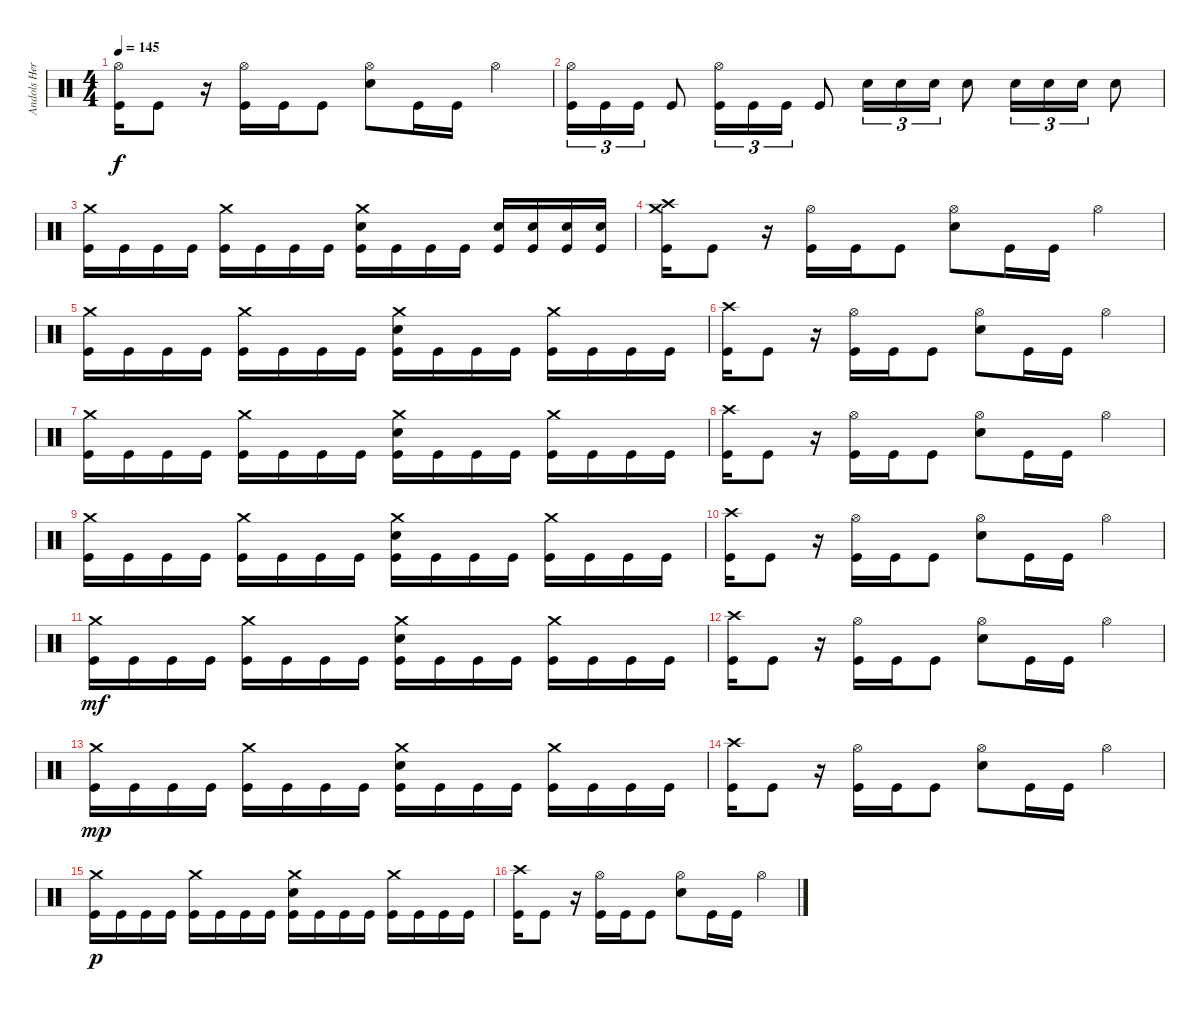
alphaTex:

\track ("Andols Herrick" "Andols Her") {instrument percussion}
\staff
\articulation defaults
\ts (4 4)
\tempo 145
\clef neutral
\ks c
("Hi-Hat (open)" "Kick (hit)").16{dy f} "Kick (hit)".8 r.16 ("Hi-Hat (open)" "Kick (hit)").16 "Kick (hit)".16 "Kick (hit)".8 ("Hi-Hat (open)" "Electric Snare (hit)").8 "Kick (hit)".16 "Kick (hit)".16 "Hi-Hat (open)".4 |
("Hi-Hat (open)" "Kick (hit)").16{tu (3 2)} "Kick (hit)".16{tu (3 2)} "Kick (hit)".16{tu (3 2)} "Kick (hit)".8 ("Hi-Hat (open)" "Kick (hit)").16{tu (3 2)} "Kick (hit)".16{tu (3 2)} "Kick (hit)".16{tu (3 2)} "Kick (hit)".8 "Electric Snare (hit)".16{tu (3 2)} "Electric Snare (hit)".16{tu (3 2)} "Electric Snare (hit)".16{tu (3 2)} "Electric Snare (hit)".8 "Electric Snare (hit)".16{tu (3 2)} "Electric Snare (hit)".16{tu (3 2)} "Electric Snare (hit)".16{tu (3 2)} "Electric Snare (hit)".8 |
("Crash medium (hit)" "Kick (hit)").16 "Kick (hit)".16 "Kick (hit)".16 "Kick (hit)".16 ("Crash medium (hit)" "Kick (hit)").16 "Kick (hit)".16 "Kick (hit)".16 "Kick (hit)".16 ("Crash medium (hit)" "Electric Snare (hit)" "Kick (hit)").16 "Kick (hit)".16 "Kick (hit)".16 "Kick (hit)".16 ("Electric Snare (hit)" "Kick (hit)").16 ("Electric Snare (hit)" "Kick (hit)").16 ("Electric Snare (hit)" "Kick (hit)").16 ("Electric Snare (hit)" "Kick (hit)").16 |
("Crash medium (hit)" "Crash high (hit)" "Kick (hit)").16 "Kick (hit)".8 r.16 ("Hi-Hat (open)" "Kick (hit)").16 "Kick (hit)".16 "Kick (hit)".8 ("Hi-Hat (open)" "Electric Snare (hit)").8 "Kick (hit)".16 "Kick (hit)".16 "Hi-Hat (open)".4 |
("Crash medium (hit)" "Kick (hit)").16 "Kick (hit)".16 "Kick (hit)".16 "Kick (hit)".16 ("Crash medium (hit)" "Kick (hit)").16 "Kick (hit)".16 "Kick (hit)".16 "Kick (hit)".16 ("Crash medium (hit)" "Electric Snare (hit)" "Kick (hit)").16 "Kick (hit)".16 "Kick (hit)".16 "Kick (hit)".16 ("Crash medium (hit)" "Kick (hit)").16 "Kick (hit)".16 "Kick (hit)".16 "Kick (hit)".16 |
("Crash high (hit)" "Kick (hit)").16 "Kick (hit)".8 r.16 ("Hi-Hat (open)" "Kick (hit)").16 "Kick (hit)".16 "Kick (hit)".8 ("Hi-Hat (open)" "Electric Snare (hit)").8 "Kick (hit)".16 "Kick (hit)".16 "Hi-Hat (open)".4 |
("Crash medium (hit)" "Kick (hit)").16 "Kick (hit)".16 "Kick (hit)".16 "Kick (hit)".16 ("Crash medium (hit)" "Kick (hit)").16 "Kick (hit)".16 "Kick (hit)".16 "Kick (hit)".16 ("Crash medium (hit)" "Electric Snare (hit)" "Kick (hit)").16 "Kick (hit)".16 "Kick (hit)".16 "Kick (hit)".16 ("Crash medium (hit)" "Kick (hit)").16 "Kick (hit)".16 "Kick (hit)".16 "Kick (hit)".16 |
("Crash high (hit)" "Kick (hit)").16 "Kick (hit)".8 r.16 ("Hi-Hat (open)" "Kick (hit)").16 "Kick (hit)".16 "Kick (hit)".8 ("Hi-Hat (open)" "Electric Snare (hit)").8 "Kick (hit)".16 "Kick (hit)".16 "Hi-Hat (open)".4 |
("Crash medium (hit)" "Kick (hit)").16 "Kick (hit)".16 "Kick (hit)".16 "Kick (hit)".16 ("Crash medium (hit)" "Kick (hit)").16 "Kick (hit)".16 "Kick (hit)".16 "Kick (hit)".16 ("Crash medium (hit)" "Electric Snare (hit)" "Kick (hit)").16 "Kick (hit)".16 "Kick (hit)".16 "Kick (hit)".16 ("Crash medium (hit)" "Kick (hit)").16 "Kick (hit)".16 "Kick (hit)".16 "Kick (hit)".16 |
("Crash high (hit)" "Kick (hit)").16 "Kick (hit)".8 r.16 ("Hi-Hat (open)" "Kick (hit)").16 "Kick (hit)".16 "Kick (hit)".8 ("Hi-Hat (open)" "Electric Snare (hit)").8 "Kick (hit)".16 "Kick (hit)".16 "Hi-Hat (open)".4 |
("Crash medium (hit)" "Kick (hit)").16{dy mf} "Kick (hit)".16 "Kick (hit)".16 "Kick (hit)".16 ("Crash medium (hit)" "Kick (hit)").16 "Kick (hit)".16 "Kick (hit)".16 "Kick (hit)".16 ("Crash medium (hit)" "Electric Snare (hit)" "Kick (hit)").16 "Kick (hit)".16 "Kick (hit)".16 "Kick (hit)".16 ("Crash medium (hit)" "Kick (hit)").16 "Kick (hit)".16 "Kick (hit)".16 "Kick (hit)".16 |
("Crash high (hit)" "Kick (hit)").16 "Kick (hit)".8 r.16 ("Hi-Hat (open)" "Kick (hit)").16 "Kick (hit)".16 "Kick (hit)".8 ("Hi-Hat (open)" "Electric Snare (hit)").8 "Kick (hit)".16 "Kick (hit)".16 "Hi-Hat (open)".4 |
("Crash medium (hit)" "Kick (hit)").16{dy mp} "Kick (hit)".16 "Kick (hit)".16 "Kick (hit)".16 ("Crash medium (hit)" "Kick (hit)").16 "Kick (hit)".16 "Kick (hit)".16 "Kick (hit)".16 ("Crash medium (hit)" "Electric Snare (hit)" "Kick (hit)").16 "Kick (hit)".16 "Kick (hit)".16 "Kick (hit)".16 ("Crash medium (hit)" "Kick (hit)").16 "Kick (hit)".16 "Kick (hit)".16 "Kick (hit)".16 |
("Crash high (hit)" "Kick (hit)").16 "Kick (hit)".8 r.16 ("Hi-Hat (open)" "Kick (hit)").16 "Kick (hit)".16 "Kick (hit)".8 ("Hi-Hat (open)" "Electric Snare (hit)").8 "Kick (hit)".16 "Kick (hit)".16 "Hi-Hat (open)".4 |
("Crash medium (hit)" "Kick (hit)").16{dy p} "Kick (hit)".16 "Kick (hit)".16 "Kick (hit)".16 ("Crash medium (hit)" "Kick (hit)").16 "Kick (hit)".16 "Kick (hit)".16 "Kick (hit)".16 ("Crash medium (hit)" "Electric Snare (hit)" "Kick (hit)").16 "Kick (hit)".16 "Kick (hit)".16 "Kick (hit)".16 ("Crash medium (hit)" "Kick (hit)").16 "Kick (hit)".16 "Kick (hit)".16 "Kick (hit)".16 |
("Crash high (hit)" "Kick (hit)").16 "Kick (hit)".8 r.16 ("Hi-Hat (open)" "Kick (hit)").16 "Kick (hit)".16 "Kick (hit)".8 ("Hi-Hat (open)" "Electric Snare (hit)").8 "Kick (hit)".16 "Kick (hit)".16 "Hi-Hat (open)".4
